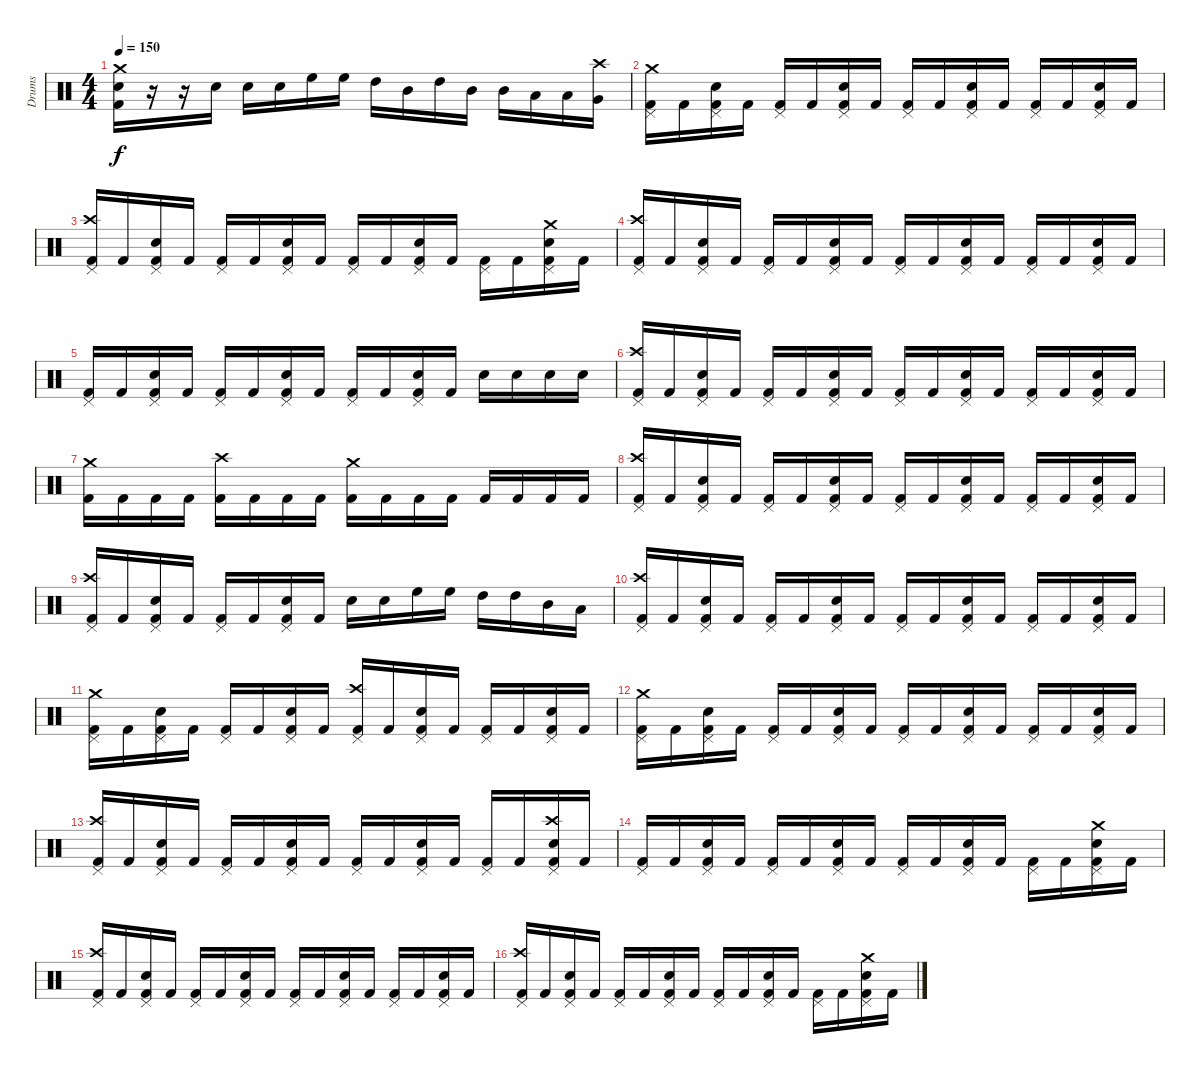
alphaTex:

\track ("Drums" "Drums") {instrument percussion}
\staff {score}
\articulation defaults
\ts (4 4)
\tempo 150
\clef neutral
\ks c
("Crash medium (hit)" "Electric Snare (hit)" "Kick (hit) 2").16{dy f} r.16 r.16 "Electric Snare (hit)".16 "Electric Snare (hit)".16 "Electric Snare (hit)".16 "High Floor Tom (hit)".16 "High Floor Tom (hit)".16 "High Tom (hit)".16 "Mid Tom (hit)".16 "High Tom (hit)".16 "Mid Tom (hit)".16 "Mid Tom (hit)".16 "Low Tom (hit)".16 "Low Tom (hit)".16 ("Crash high (hit)" "Very Low Tom (hit)").16 |
("Crash medium (hit)" "Pedal Hi-Hat (hit)" "Kick (hit) 2").16 "Kick (hit) 2".16 ("Pedal Hi-Hat (hit)" "Kick (hit) 2" "Electric Snare (hit)").16 "Kick (hit) 2".16 ("Pedal Hi-Hat (hit)" "Kick (hit) 2").16 "Kick (hit) 2".16 ("Pedal Hi-Hat (hit)" "Kick (hit) 2" "Electric Snare (hit)").16 "Kick (hit) 2".16 ("Pedal Hi-Hat (hit)" "Kick (hit) 2").16 "Kick (hit) 2".16 ("Pedal Hi-Hat (hit)" "Kick (hit) 2" "Electric Snare (hit)").16 "Kick (hit) 2".16 ("Pedal Hi-Hat (hit)" "Kick (hit) 2").16 "Kick (hit) 2".16 ("Pedal Hi-Hat (hit)" "Kick (hit) 2" "Electric Snare (hit)").16 "Kick (hit) 2".16 |
("Crash high (hit)" "Pedal Hi-Hat (hit)" "Kick (hit) 2").16 "Kick (hit) 2".16 ("Pedal Hi-Hat (hit)" "Kick (hit) 2" "Electric Snare (hit)").16 "Kick (hit) 2".16 ("Pedal Hi-Hat (hit)" "Kick (hit) 2").16 "Kick (hit) 2".16 ("Pedal Hi-Hat (hit)" "Kick (hit) 2" "Electric Snare (hit)").16 "Kick (hit) 2".16 ("Pedal Hi-Hat (hit)" "Kick (hit) 2").16 "Kick (hit) 2".16 ("Pedal Hi-Hat (hit)" "Kick (hit) 2" "Electric Snare (hit)").16 "Kick (hit) 2".16 ("Pedal Hi-Hat (hit)" "Kick (hit) 2").16 "Kick (hit) 2".16 ("Crash medium (hit)" "Pedal Hi-Hat (hit)" "Kick (hit) 2" "Electric Snare (hit)").16 "Kick (hit) 2".16 |
("Crash high (hit)" "Pedal Hi-Hat (hit)" "Kick (hit) 2").16 "Kick (hit) 2".16 ("Pedal Hi-Hat (hit)" "Kick (hit) 2" "Electric Snare (hit)").16 "Kick (hit) 2".16 ("Pedal Hi-Hat (hit)" "Kick (hit) 2").16 "Kick (hit) 2".16 ("Pedal Hi-Hat (hit)" "Kick (hit) 2" "Electric Snare (hit)").16 "Kick (hit) 2".16 ("Pedal Hi-Hat (hit)" "Kick (hit) 2").16 "Kick (hit) 2".16 ("Pedal Hi-Hat (hit)" "Kick (hit) 2" "Electric Snare (hit)").16 "Kick (hit) 2".16 ("Pedal Hi-Hat (hit)" "Kick (hit) 2").16 "Kick (hit) 2".16 ("Pedal Hi-Hat (hit)" "Kick (hit) 2" "Electric Snare (hit)").16 "Kick (hit) 2".16 |
("Pedal Hi-Hat (hit)" "Kick (hit) 2").16 "Kick (hit) 2".16 ("Pedal Hi-Hat (hit)" "Kick (hit) 2" "Electric Snare (hit)").16 "Kick (hit) 2".16 ("Pedal Hi-Hat (hit)" "Kick (hit) 2").16 "Kick (hit) 2".16 ("Pedal Hi-Hat (hit)" "Kick (hit) 2" "Electric Snare (hit)").16 "Kick (hit) 2".16 ("Pedal Hi-Hat (hit)" "Kick (hit) 2").16 "Kick (hit) 2".16 ("Pedal Hi-Hat (hit)" "Kick (hit) 2" "Electric Snare (hit)").16 "Kick (hit) 2".16 "Electric Snare (hit)".16 "Electric Snare (hit)".16 "Electric Snare (hit)".16 "Electric Snare (hit)".16 |
("Crash high (hit)" "Pedal Hi-Hat (hit)" "Kick (hit) 2").16 "Kick (hit) 2".16 ("Pedal Hi-Hat (hit)" "Kick (hit) 2" "Electric Snare (hit)").16 "Kick (hit) 2".16 ("Pedal Hi-Hat (hit)" "Kick (hit) 2").16 "Kick (hit) 2".16 ("Pedal Hi-Hat (hit)" "Kick (hit) 2" "Electric Snare (hit)").16 "Kick (hit) 2".16 ("Pedal Hi-Hat (hit)" "Kick (hit) 2").16 "Kick (hit) 2".16 ("Pedal Hi-Hat (hit)" "Kick (hit) 2" "Electric Snare (hit)").16 "Kick (hit) 2".16 ("Pedal Hi-Hat (hit)" "Kick (hit) 2").16 "Kick (hit) 2".16 ("Pedal Hi-Hat (hit)" "Kick (hit) 2" "Electric Snare (hit)").16 "Kick (hit) 2".16 |
("Crash medium (hit)" "Kick (hit) 2").16 "Kick (hit) 2".16 "Kick (hit) 2".16 "Kick (hit) 2".16 ("Crash high (hit)" "Kick (hit) 2").16 "Kick (hit) 2".16 "Kick (hit) 2".16 "Kick (hit) 2".16 ("Crash medium (hit)" "Kick (hit) 2").16 "Kick (hit) 2".16 "Kick (hit) 2".16 "Kick (hit) 2".16 "Kick (hit) 2".16 "Kick (hit) 2".16 "Kick (hit) 2".16 "Kick (hit) 2".16 |
("Crash high (hit)" "Pedal Hi-Hat (hit)" "Kick (hit) 2").16 "Kick (hit) 2".16 ("Pedal Hi-Hat (hit)" "Kick (hit) 2" "Electric Snare (hit)").16 "Kick (hit) 2".16 ("Pedal Hi-Hat (hit)" "Kick (hit) 2").16 "Kick (hit) 2".16 ("Pedal Hi-Hat (hit)" "Kick (hit) 2" "Electric Snare (hit)").16 "Kick (hit) 2".16 ("Pedal Hi-Hat (hit)" "Kick (hit) 2").16 "Kick (hit) 2".16 ("Pedal Hi-Hat (hit)" "Kick (hit) 2" "Electric Snare (hit)").16 "Kick (hit) 2".16 ("Pedal Hi-Hat (hit)" "Kick (hit) 2").16 "Kick (hit) 2".16 ("Pedal Hi-Hat (hit)" "Kick (hit) 2" "Electric Snare (hit)").16 "Kick (hit) 2".16 |
("Crash high (hit)" "Pedal Hi-Hat (hit)" "Kick (hit) 2").16 "Kick (hit) 2".16 ("Pedal Hi-Hat (hit)" "Kick (hit) 2" "Electric Snare (hit)").16 "Kick (hit) 2".16 ("Pedal Hi-Hat (hit)" "Kick (hit) 2").16 "Kick (hit) 2".16 ("Pedal Hi-Hat (hit)" "Kick (hit) 2" "Electric Snare (hit)").16 "Kick (hit) 2".16 "Electric Snare (hit)".16 "Electric Snare (hit)".16 "High Floor Tom (hit)".16 "High Floor Tom (hit)".16 "High Tom (hit)".16 "High Tom (hit)".16 "Mid Tom (hit)".16 "Low Tom (hit)".16 |
("Crash high (hit)" "Pedal Hi-Hat (hit)" "Kick (hit) 2").16 "Kick (hit) 2".16 ("Pedal Hi-Hat (hit)" "Kick (hit) 2" "Electric Snare (hit)").16 "Kick (hit) 2".16 ("Pedal Hi-Hat (hit)" "Kick (hit) 2").16 "Kick (hit) 2".16 ("Pedal Hi-Hat (hit)" "Kick (hit) 2" "Electric Snare (hit)").16 "Kick (hit) 2".16 ("Pedal Hi-Hat (hit)" "Kick (hit) 2").16 "Kick (hit) 2".16 ("Pedal Hi-Hat (hit)" "Kick (hit) 2" "Electric Snare (hit)").16 "Kick (hit) 2".16 ("Pedal Hi-Hat (hit)" "Kick (hit) 2").16 "Kick (hit) 2".16 ("Pedal Hi-Hat (hit)" "Kick (hit) 2" "Electric Snare (hit)").16 "Kick (hit) 2".16 |
("Crash medium (hit)" "Pedal Hi-Hat (hit)" "Kick (hit) 2").16 "Kick (hit) 2".16 ("Pedal Hi-Hat (hit)" "Kick (hit) 2" "Electric Snare (hit)").16 "Kick (hit) 2".16 ("Pedal Hi-Hat (hit)" "Kick (hit) 2").16 "Kick (hit) 2".16 ("Pedal Hi-Hat (hit)" "Kick (hit) 2" "Electric Snare (hit)").16 "Kick (hit) 2".16 ("Crash high (hit)" "Pedal Hi-Hat (hit)" "Kick (hit) 2").16 "Kick (hit) 2".16 ("Pedal Hi-Hat (hit)" "Kick (hit) 2" "Electric Snare (hit)").16 "Kick (hit) 2".16 ("Pedal Hi-Hat (hit)" "Kick (hit) 2").16 "Kick (hit) 2".16 ("Pedal Hi-Hat (hit)" "Kick (hit) 2" "Electric Snare (hit)").16 "Kick (hit) 2".16 |
("Crash medium (hit)" "Pedal Hi-Hat (hit)" "Kick (hit) 2").16 "Kick (hit) 2".16 ("Pedal Hi-Hat (hit)" "Kick (hit) 2" "Electric Snare (hit)").16 "Kick (hit) 2".16 ("Pedal Hi-Hat (hit)" "Kick (hit) 2").16 "Kick (hit) 2".16 ("Pedal Hi-Hat (hit)" "Kick (hit) 2" "Electric Snare (hit)").16 "Kick (hit) 2".16 ("Pedal Hi-Hat (hit)" "Kick (hit) 2").16 "Kick (hit) 2".16 ("Pedal Hi-Hat (hit)" "Kick (hit) 2" "Electric Snare (hit)").16 "Kick (hit) 2".16 ("Pedal Hi-Hat (hit)" "Kick (hit) 2").16 "Kick (hit) 2".16 ("Pedal Hi-Hat (hit)" "Kick (hit) 2" "Electric Snare (hit)").16 "Kick (hit) 2".16 |
("Crash high (hit)" "Pedal Hi-Hat (hit)" "Kick (hit) 2").16 "Kick (hit) 2".16 ("Pedal Hi-Hat (hit)" "Kick (hit) 2" "Electric Snare (hit)").16 "Kick (hit) 2".16 ("Pedal Hi-Hat (hit)" "Kick (hit) 2").16 "Kick (hit) 2".16 ("Pedal Hi-Hat (hit)" "Kick (hit) 2" "Electric Snare (hit)").16 "Kick (hit) 2".16 ("Pedal Hi-Hat (hit)" "Kick (hit) 2").16 "Kick (hit) 2".16 ("Pedal Hi-Hat (hit)" "Kick (hit) 2" "Electric Snare (hit)").16 "Kick (hit) 2".16 ("Pedal Hi-Hat (hit)" "Kick (hit) 2").16 "Kick (hit) 2".16 ("Crash high (hit)" "Pedal Hi-Hat (hit)" "Kick (hit) 2" "Electric Snare (hit)").16 "Kick (hit) 2".16 |
("Pedal Hi-Hat (hit)" "Kick (hit) 2").16 "Kick (hit) 2".16 ("Pedal Hi-Hat (hit)" "Kick (hit) 2" "Electric Snare (hit)").16 "Kick (hit) 2".16 ("Pedal Hi-Hat (hit)" "Kick (hit) 2").16 "Kick (hit) 2".16 ("Pedal Hi-Hat (hit)" "Kick (hit) 2" "Electric Snare (hit)").16 "Kick (hit) 2".16 ("Pedal Hi-Hat (hit)" "Kick (hit) 2").16 "Kick (hit) 2".16 ("Pedal Hi-Hat (hit)" "Kick (hit) 2" "Electric Snare (hit)").16 "Kick (hit) 2".16 ("Pedal Hi-Hat (hit)" "Kick (hit) 2").16 "Kick (hit) 2".16 ("Crash medium (hit)" "Pedal Hi-Hat (hit)" "Kick (hit) 2" "Electric Snare (hit)").16 "Kick (hit) 2".16 |
("Crash high (hit)" "Pedal Hi-Hat (hit)" "Kick (hit) 2").16 "Kick (hit) 2".16 ("Pedal Hi-Hat (hit)" "Kick (hit) 2" "Electric Snare (hit)").16 "Kick (hit) 2".16 ("Pedal Hi-Hat (hit)" "Kick (hit) 2").16 "Kick (hit) 2".16 ("Pedal Hi-Hat (hit)" "Kick (hit) 2" "Electric Snare (hit)").16 "Kick (hit) 2".16 ("Pedal Hi-Hat (hit)" "Kick (hit) 2").16 "Kick (hit) 2".16 ("Pedal Hi-Hat (hit)" "Kick (hit) 2" "Electric Snare (hit)").16 "Kick (hit) 2".16 ("Pedal Hi-Hat (hit)" "Kick (hit) 2").16 "Kick (hit) 2".16 ("Pedal Hi-Hat (hit)" "Kick (hit) 2" "Electric Snare (hit)").16 "Kick (hit) 2".16 |
("Crash high (hit)" "Pedal Hi-Hat (hit)" "Kick (hit) 2").16 "Kick (hit) 2".16 ("Pedal Hi-Hat (hit)" "Kick (hit) 2" "Electric Snare (hit)").16 "Kick (hit) 2".16 ("Pedal Hi-Hat (hit)" "Kick (hit) 2").16 "Kick (hit) 2".16 ("Pedal Hi-Hat (hit)" "Kick (hit) 2" "Electric Snare (hit)").16 "Kick (hit) 2".16 ("Pedal Hi-Hat (hit)" "Kick (hit) 2").16 "Kick (hit) 2".16 ("Pedal Hi-Hat (hit)" "Kick (hit) 2" "Electric Snare (hit)").16 "Kick (hit) 2".16 ("Pedal Hi-Hat (hit)" "Kick (hit) 2").16 "Kick (hit) 2".16 ("Crash medium (hit)" "Pedal Hi-Hat (hit)" "Kick (hit) 2" "Electric Snare (hit)").16 "Kick (hit) 2".16
